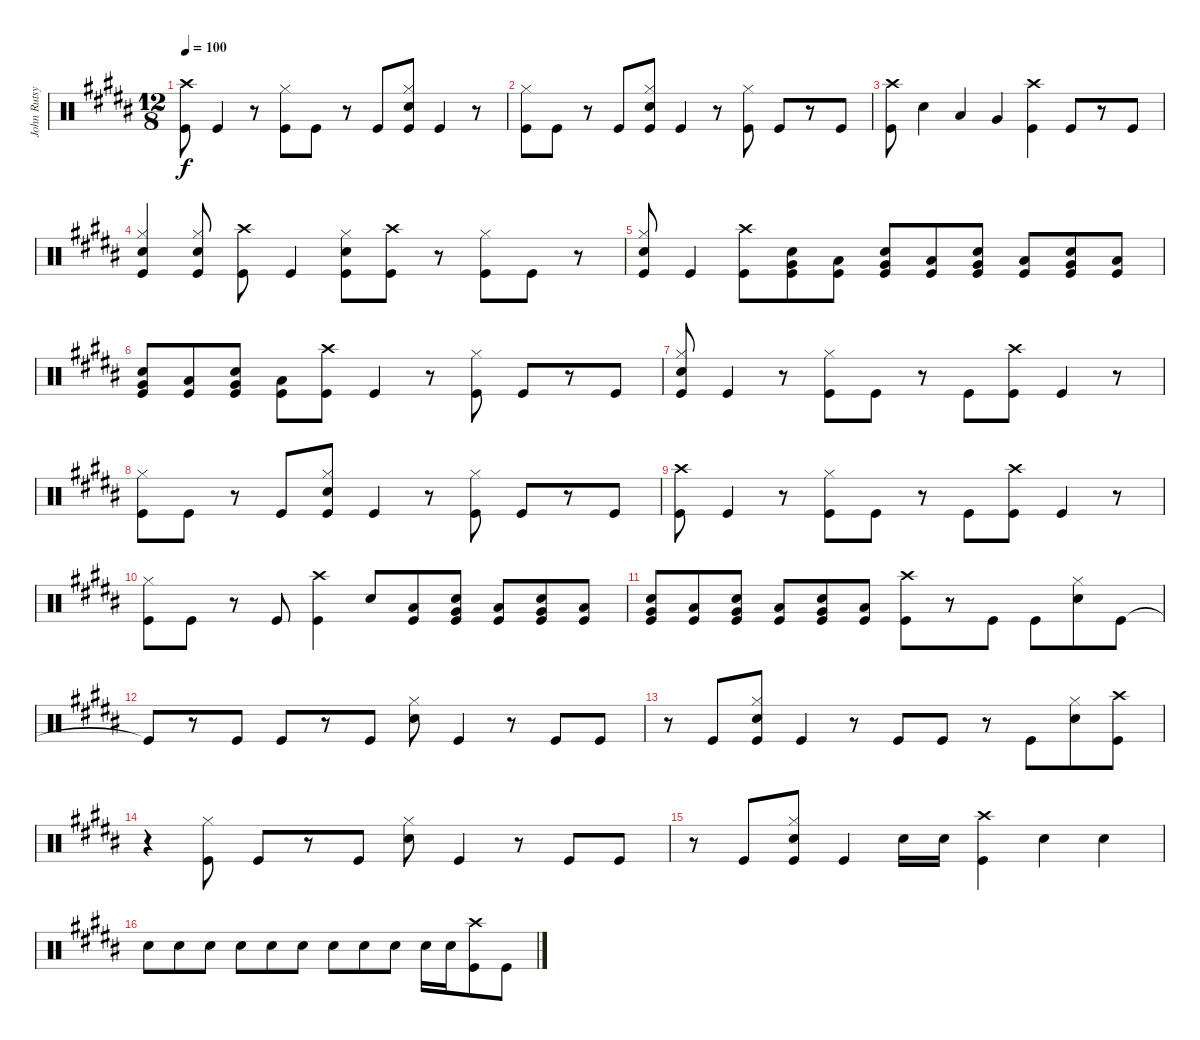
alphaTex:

\track ("John Rutsy Drums" "John Rutsy") {instrument percussion}
\staff {score}
\articulation defaults
\ts (12 8)
\tempo 100
\clef neutral
\ks b
("Crash high (hit)" "Kick (hit)").8{dy f} "Kick (hit)".4 r.8 ("Hi-Hat (closed)" "Kick (hit)").8 "Kick (hit)".8 r.8 "Kick (hit)".8 ("Hi-Hat (closed)" "Snare (hit) 2" "Kick (hit)").8 "Kick (hit)".4 r.8 |
("Hi-Hat (closed)" "Kick (hit)").8 "Kick (hit)".8 r.8 "Kick (hit)".8 ("Hi-Hat (closed)" "Snare (hit) 2" "Kick (hit)").8 "Kick (hit)".4 r.8 ("Hi-Hat (closed)" "Kick (hit)").8 "Kick (hit)".8 r.8 "Kick (hit)".8 |
("Crash high (hit)" "Kick (hit)").8 "Snare (hit) 2".4 "Low Tom (hit)".4 "Very Low Tom (hit)".4 ("Crash high (hit)" "Kick (hit)").4 "Kick (hit)".8 r.8 "Kick (hit)".8 |
("Hi-Hat (closed)" "Snare (hit) 2" "Kick (hit)").4 ("Hi-Hat (closed)" "Snare (hit) 2" "Kick (hit)").8 ("Crash high (hit)" "Kick (hit)").8 "Kick (hit)".4 ("Hi-Hat (closed)" "Snare (hit) 2" "Kick (hit)").8 ("Crash high (hit)" "Kick (hit)").8 r.8 ("Hi-Hat (closed)" "Kick (hit)").8 "Kick (hit)".8 r.8 |
("Hi-Hat (closed)" "Snare (hit) 2" "Kick (hit)").8 "Kick (hit)".4 ("Crash high (hit)" "Kick (hit)").8 ("Snare (hit) 2" "Very Low Tom (hit)" "Kick (hit)").8 ("Low Tom (hit)" "Kick (hit)").8 ("Snare (hit) 2" "Very Low Tom (hit)" "Kick (hit)").8 ("Low Tom (hit)" "Kick (hit)").8 ("Snare (hit) 2" "Very Low Tom (hit)" "Kick (hit)").8 ("Low Tom (hit)" "Kick (hit)").8 ("Snare (hit) 2" "Very Low Tom (hit)" "Kick (hit)").8 ("Low Tom (hit)" "Kick (hit)").8 |
("Snare (hit) 2" "Very Low Tom (hit)" "Kick (hit)").8 ("Low Tom (hit)" "Kick (hit)").8 ("Snare (hit) 2" "Very Low Tom (hit)" "Kick (hit)").8 ("Low Tom (hit)" "Kick (hit)").8 ("Crash high (hit)" "Kick (hit)").8 "Kick (hit)".4 r.8 ("Hi-Hat (closed)" "Kick (hit)").8 "Kick (hit)".8 r.8 "Kick (hit)".8 |
("Hi-Hat (closed)" "Snare (hit) 2" "Kick (hit)").8 "Kick (hit)".4 r.8 ("Hi-Hat (closed)" "Kick (hit)").8 "Kick (hit)".8 r.8 "Kick (hit)".8 ("Crash high (hit)" "Kick (hit)").8 "Kick (hit)".4 r.8 |
("Hi-Hat (closed)" "Kick (hit)").8 "Kick (hit)".8 r.8 "Kick (hit)".8 ("Hi-Hat (closed)" "Snare (hit) 2" "Kick (hit)").8 "Kick (hit)".4 r.8 ("Hi-Hat (closed)" "Kick (hit)").8 "Kick (hit)".8 r.8 "Kick (hit)".8 |
("Crash high (hit)" "Kick (hit)").8 "Kick (hit)".4 r.8 ("Hi-Hat (closed)" "Kick (hit)").8 "Kick (hit)".8 r.8 "Kick (hit)".8 ("Crash high (hit)" "Kick (hit)").8 "Kick (hit)".4 r.8 |
("Hi-Hat (closed)" "Kick (hit)").8 "Kick (hit)".8 r.8 "Kick (hit)".8 ("Crash high (hit)" "Kick (hit)").4 "Snare (hit) 2".8 ("Low Tom (hit)" "Kick (hit)").8 ("Snare (hit) 2" "Very Low Tom (hit)" "Kick (hit)").8 ("Low Tom (hit)" "Kick (hit)").8 ("Snare (hit) 2" "Very Low Tom (hit)" "Kick (hit)").8 ("Low Tom (hit)" "Kick (hit)").8 |
("Snare (hit) 2" "Very Low Tom (hit)" "Kick (hit)").8 ("Low Tom (hit)" "Kick (hit)").8 ("Snare (hit) 2" "Very Low Tom (hit)" "Kick (hit)").8 ("Low Tom (hit)" "Kick (hit)").8 ("Snare (hit) 2" "Very Low Tom (hit)" "Kick (hit)").8 ("Low Tom (hit)" "Kick (hit)").8 ("Crash high (hit)" "Kick (hit)").8 r.8 "Kick (hit)".8 "Kick (hit)".8 ("Hi-Hat (closed)" "Snare (hit) 2").8 "Kick (hit)".8 |
"Kick (hit)"{t}.8 r.8 "Kick (hit)".8 "Kick (hit)".8 r.8 "Kick (hit)".8 ("Hi-Hat (closed)" "Snare (hit) 2").8 "Kick (hit)".4 r.8 "Kick (hit)".8 "Kick (hit)".8 |
r.8 "Kick (hit)".8 ("Hi-Hat (closed)" "Snare (hit) 2" "Kick (hit)").8 "Kick (hit)".4 r.8 "Kick (hit)".8 "Kick (hit)".8 r.8 "Kick (hit)".8 ("Hi-Hat (closed)" "Snare (hit) 2").8 ("Crash high (hit)" "Kick (hit)").8 |
r.4 ("Hi-Hat (closed)" "Kick (hit)").8 "Kick (hit)".8 r.8 "Kick (hit)".8 ("Hi-Hat (closed)" "Snare (hit) 2").8 "Kick (hit)".4 r.8 "Kick (hit)".8 "Kick (hit)".8 |
r.8 "Kick (hit)".8 ("Hi-Hat (closed)" "Snare (hit) 2" "Kick (hit)").8 "Kick (hit)".4 "Snare (hit) 2".16 "Snare (hit) 2".16 ("Crash high (hit)" "Kick (hit)").4 "Snare (hit) 2".4 "Snare (hit) 2".4 |
"Snare (hit) 2".8 "Snare (hit) 2".8 "Snare (hit) 2".8 "Snare (hit) 2".8 "Snare (hit) 2".8 "Snare (hit) 2".8 "Snare (hit) 2".8 "Snare (hit) 2".8 "Snare (hit) 2".8 "Snare (hit) 2".16 "Snare (hit) 2".16 ("Crash high (hit)" "Kick (hit)").8 "Kick (hit)".8
